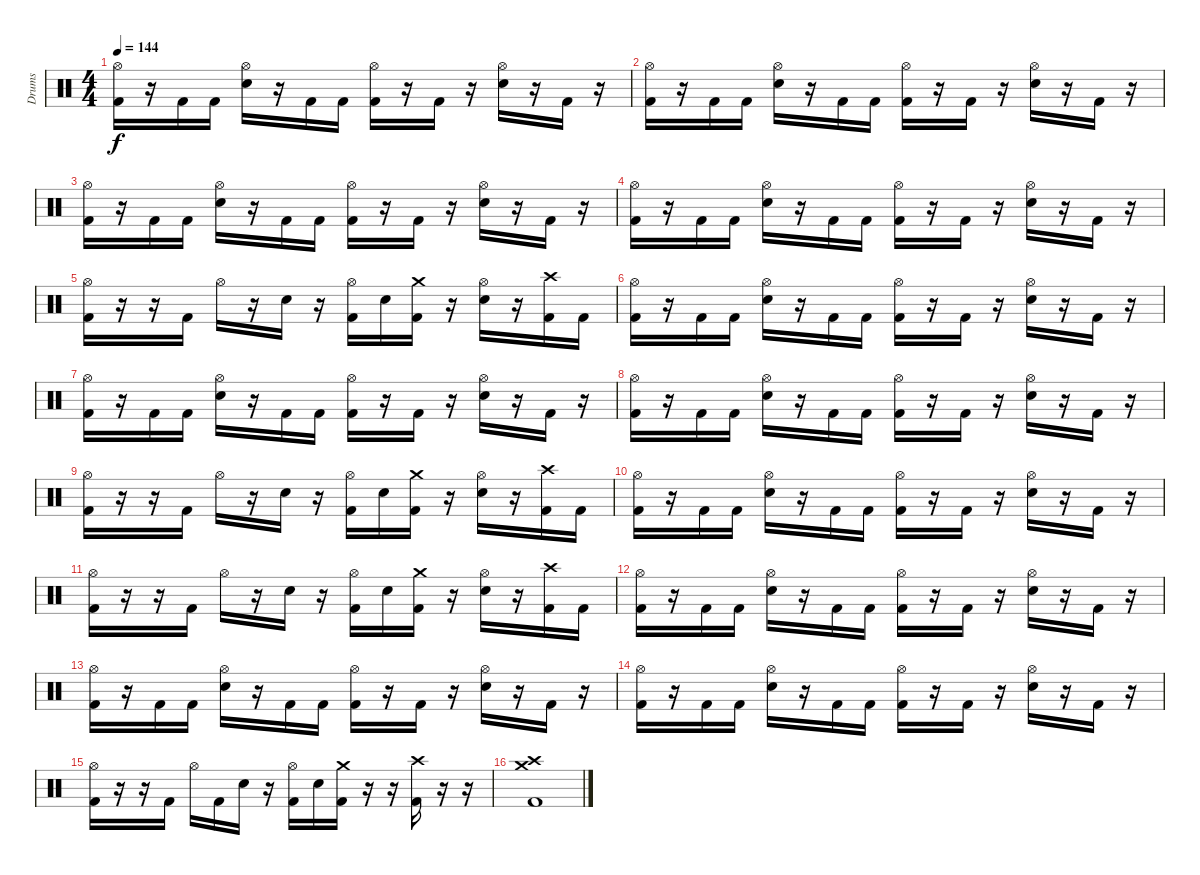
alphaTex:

\track ("Drums" "Drums") {instrument percussion}
\staff {score}
\articulation defaults
\ts (4 4)
\tempo 144
\clef neutral
\ks c
("Hi-Hat (open)" "Kick (hit) 2").16{dy f} r.16 "Kick (hit) 2".16 "Kick (hit) 2".16 ("Hi-Hat (open)" "Snare (hit) 2").16 r.16 "Kick (hit) 2".16 "Kick (hit) 2".16 ("Hi-Hat (open)" "Kick (hit) 2").16 r.16 "Kick (hit) 2".16 r.16 ("Hi-Hat (open)" "Snare (hit) 2").16 r.16 "Kick (hit) 2".16 r.16 |
("Hi-Hat (open)" "Kick (hit) 2").16 r.16 "Kick (hit) 2".16 "Kick (hit) 2".16 ("Hi-Hat (open)" "Snare (hit) 2").16 r.16 "Kick (hit) 2".16 "Kick (hit) 2".16 ("Hi-Hat (open)" "Kick (hit) 2").16 r.16 "Kick (hit) 2".16 r.16 ("Hi-Hat (open)" "Snare (hit) 2").16 r.16 "Kick (hit) 2".16 r.16 |
("Hi-Hat (open)" "Kick (hit) 2").16 r.16 "Kick (hit) 2".16 "Kick (hit) 2".16 ("Hi-Hat (open)" "Snare (hit) 2").16 r.16 "Kick (hit) 2".16 "Kick (hit) 2".16 ("Hi-Hat (open)" "Kick (hit) 2").16 r.16 "Kick (hit) 2".16 r.16 ("Hi-Hat (open)" "Snare (hit) 2").16 r.16 "Kick (hit) 2".16 r.16 |
("Hi-Hat (open)" "Kick (hit) 2").16 r.16 "Kick (hit) 2".16 "Kick (hit) 2".16 ("Hi-Hat (open)" "Snare (hit) 2").16 r.16 "Kick (hit) 2".16 "Kick (hit) 2".16 ("Hi-Hat (open)" "Kick (hit) 2").16 r.16 "Kick (hit) 2".16 r.16 ("Hi-Hat (open)" "Snare (hit) 2").16 r.16 "Kick (hit) 2".16 r.16 |
("Hi-Hat (open)" "Kick (hit) 2").16 r.16 r.16 "Kick (hit) 2".16 "Hi-Hat (open)".16 r.16 "Snare (hit) 2".16 r.16 ("Hi-Hat (open)" "Kick (hit) 2").16 "Snare (hit) 2".16 ("Crash medium (hit)" "Kick (hit) 2").16 r.16 ("Hi-Hat (open)" "Snare (hit) 2").16 r.16 ("Crash high (hit)" "Kick (hit) 2").16 "Kick (hit) 2".16 |
("Hi-Hat (open)" "Kick (hit) 2").16 r.16 "Kick (hit) 2".16 "Kick (hit) 2".16 ("Hi-Hat (open)" "Snare (hit) 2").16 r.16 "Kick (hit) 2".16 "Kick (hit) 2".16 ("Hi-Hat (open)" "Kick (hit) 2").16 r.16 "Kick (hit) 2".16 r.16 ("Hi-Hat (open)" "Snare (hit) 2").16 r.16 "Kick (hit) 2".16 r.16 |
("Hi-Hat (open)" "Kick (hit) 2").16 r.16 "Kick (hit) 2".16 "Kick (hit) 2".16 ("Hi-Hat (open)" "Snare (hit) 2").16 r.16 "Kick (hit) 2".16 "Kick (hit) 2".16 ("Hi-Hat (open)" "Kick (hit) 2").16 r.16 "Kick (hit) 2".16 r.16 ("Hi-Hat (open)" "Snare (hit) 2").16 r.16 "Kick (hit) 2".16 r.16 |
("Hi-Hat (open)" "Kick (hit) 2").16 r.16 "Kick (hit) 2".16 "Kick (hit) 2".16 ("Hi-Hat (open)" "Snare (hit) 2").16 r.16 "Kick (hit) 2".16 "Kick (hit) 2".16 ("Hi-Hat (open)" "Kick (hit) 2").16 r.16 "Kick (hit) 2".16 r.16 ("Hi-Hat (open)" "Snare (hit) 2").16 r.16 "Kick (hit) 2".16 r.16 |
("Hi-Hat (open)" "Kick (hit) 2").16 r.16 r.16 "Kick (hit) 2".16 "Hi-Hat (open)".16 r.16 "Snare (hit) 2".16 r.16 ("Hi-Hat (open)" "Kick (hit) 2").16 "Snare (hit) 2".16 ("Crash medium (hit)" "Kick (hit) 2").16 r.16 ("Hi-Hat (open)" "Snare (hit) 2").16 r.16 ("Crash high (hit)" "Kick (hit) 2").16 "Kick (hit) 2".16 |
("Hi-Hat (open)" "Kick (hit) 2").16 r.16 "Kick (hit) 2".16 "Kick (hit) 2".16 ("Hi-Hat (open)" "Snare (hit) 2").16 r.16 "Kick (hit) 2".16 "Kick (hit) 2".16 ("Hi-Hat (open)" "Kick (hit) 2").16 r.16 "Kick (hit) 2".16 r.16 ("Hi-Hat (open)" "Snare (hit) 2").16 r.16 "Kick (hit) 2".16 r.16 |
("Hi-Hat (open)" "Kick (hit) 2").16 r.16 r.16 "Kick (hit) 2".16 "Hi-Hat (open)".16 r.16 "Snare (hit) 2".16 r.16 ("Hi-Hat (open)" "Kick (hit) 2").16 "Snare (hit) 2".16 ("Crash medium (hit)" "Kick (hit) 2").16 r.16 ("Hi-Hat (open)" "Snare (hit) 2").16 r.16 ("Crash high (hit)" "Kick (hit) 2").16 "Kick (hit) 2".16 |
("Hi-Hat (open)" "Kick (hit) 2").16 r.16 "Kick (hit) 2".16 "Kick (hit) 2".16 ("Hi-Hat (open)" "Snare (hit) 2").16 r.16 "Kick (hit) 2".16 "Kick (hit) 2".16 ("Hi-Hat (open)" "Kick (hit) 2").16 r.16 "Kick (hit) 2".16 r.16 ("Hi-Hat (open)" "Snare (hit) 2").16 r.16 "Kick (hit) 2".16 r.16 |
("Hi-Hat (open)" "Kick (hit) 2").16 r.16 "Kick (hit) 2".16 "Kick (hit) 2".16 ("Hi-Hat (open)" "Snare (hit) 2").16 r.16 "Kick (hit) 2".16 "Kick (hit) 2".16 ("Hi-Hat (open)" "Kick (hit) 2").16 r.16 "Kick (hit) 2".16 r.16 ("Hi-Hat (open)" "Snare (hit) 2").16 r.16 "Kick (hit) 2".16 r.16 |
("Hi-Hat (open)" "Kick (hit) 2").16 r.16 "Kick (hit) 2".16 "Kick (hit) 2".16 ("Hi-Hat (open)" "Snare (hit) 2").16 r.16 "Kick (hit) 2".16 "Kick (hit) 2".16 ("Hi-Hat (open)" "Kick (hit) 2").16 r.16 "Kick (hit) 2".16 r.16 ("Hi-Hat (open)" "Snare (hit) 2").16 r.16 "Kick (hit) 2".16 r.16 |
("Hi-Hat (open)" "Kick (hit) 2").16 r.16 r.16 "Kick (hit) 2".16 "Hi-Hat (open)".16 "Kick (hit) 2".16 "Snare (hit) 2".16 r.16 ("Hi-Hat (open)" "Kick (hit) 2").16 "Snare (hit) 2".16 ("Crash medium (hit)" "Kick (hit) 2").16 r.16 r.16 ("Crash high (hit)" "Kick (hit) 2").16 r.16 r.16 |
("Crash high (hit)" "Crash medium (hit)" "Kick (hit) 2").1
